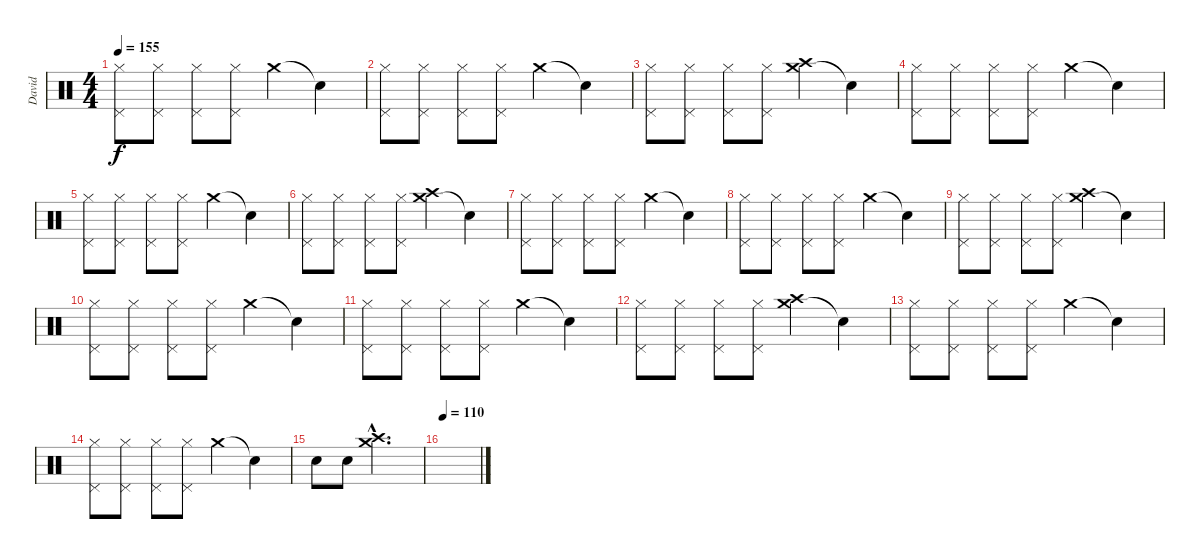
\track ("David" "David") {instrument percussion}
\staff {score}
\articulation defaults
\ts (4 4)
\tempo 155
\clef neutral
\ks c
("Hi-Hat (closed)" "Pedal Hi-Hat (hit)").8{dy f} ("Hi-Hat (closed)" "Pedal Hi-Hat (hit)").8 ("Hi-Hat (closed)" "Pedal Hi-Hat (hit)").8 ("Hi-Hat (closed)" "Pedal Hi-Hat (hit)").8 "Crash medium (hit)".4 "Snare (hit)"{t}.4 |
("Hi-Hat (closed)" "Pedal Hi-Hat (hit)").8 ("Hi-Hat (closed)" "Pedal Hi-Hat (hit)").8 ("Hi-Hat (closed)" "Pedal Hi-Hat (hit)").8 ("Hi-Hat (closed)" "Pedal Hi-Hat (hit)").8 "Crash medium (hit)".4 "Snare (hit)"{t}.4 |
("Hi-Hat (closed)" "Pedal Hi-Hat (hit)").8 ("Hi-Hat (closed)" "Pedal Hi-Hat (hit)").8 ("Hi-Hat (closed)" "Pedal Hi-Hat (hit)").8 ("Hi-Hat (closed)" "Pedal Hi-Hat (hit)").8 ("Crash medium (hit)" "Crash high (hit)").4 "Snare (hit)"{t}.4 |
("Hi-Hat (closed)" "Pedal Hi-Hat (hit)").8 ("Hi-Hat (closed)" "Pedal Hi-Hat (hit)").8 ("Hi-Hat (closed)" "Pedal Hi-Hat (hit)").8 ("Hi-Hat (closed)" "Pedal Hi-Hat (hit)").8 "Crash medium (hit)".4 "Snare (hit)"{t}.4 |
("Hi-Hat (closed)" "Pedal Hi-Hat (hit)").8 ("Hi-Hat (closed)" "Pedal Hi-Hat (hit)").8 ("Hi-Hat (closed)" "Pedal Hi-Hat (hit)").8 ("Hi-Hat (closed)" "Pedal Hi-Hat (hit)").8 "Crash medium (hit)".4 "Snare (hit)"{t}.4 |
("Hi-Hat (closed)" "Pedal Hi-Hat (hit)").8 ("Hi-Hat (closed)" "Pedal Hi-Hat (hit)").8 ("Hi-Hat (closed)" "Pedal Hi-Hat (hit)").8 ("Hi-Hat (closed)" "Pedal Hi-Hat (hit)").8 ("Crash medium (hit)" "Crash high (hit)").4 "Snare (hit)"{t}.4 |
("Hi-Hat (closed)" "Pedal Hi-Hat (hit)").8 ("Hi-Hat (closed)" "Pedal Hi-Hat (hit)").8 ("Hi-Hat (closed)" "Pedal Hi-Hat (hit)").8 ("Hi-Hat (closed)" "Pedal Hi-Hat (hit)").8 "Crash medium (hit)".4 "Snare (hit)"{t}.4 |
("Hi-Hat (closed)" "Pedal Hi-Hat (hit)").8 ("Hi-Hat (closed)" "Pedal Hi-Hat (hit)").8 ("Hi-Hat (closed)" "Pedal Hi-Hat (hit)").8 ("Hi-Hat (closed)" "Pedal Hi-Hat (hit)").8 "Crash medium (hit)".4 "Snare (hit)"{t}.4 |
("Hi-Hat (closed)" "Pedal Hi-Hat (hit)").8 ("Hi-Hat (closed)" "Pedal Hi-Hat (hit)").8 ("Hi-Hat (closed)" "Pedal Hi-Hat (hit)").8 ("Hi-Hat (closed)" "Pedal Hi-Hat (hit)").8 ("Crash medium (hit)" "Crash high (hit)").4 "Snare (hit)"{t}.4 |
("Hi-Hat (closed)" "Pedal Hi-Hat (hit)").8 ("Hi-Hat (closed)" "Pedal Hi-Hat (hit)").8 ("Hi-Hat (closed)" "Pedal Hi-Hat (hit)").8 ("Hi-Hat (closed)" "Pedal Hi-Hat (hit)").8 "Crash medium (hit)".4 "Snare (hit)"{t}.4 |
("Hi-Hat (closed)" "Pedal Hi-Hat (hit)").8 ("Hi-Hat (closed)" "Pedal Hi-Hat (hit)").8 ("Hi-Hat (closed)" "Pedal Hi-Hat (hit)").8 ("Hi-Hat (closed)" "Pedal Hi-Hat (hit)").8 "Crash medium (hit)".4 "Snare (hit)"{t}.4 |
("Hi-Hat (closed)" "Pedal Hi-Hat (hit)").8 ("Hi-Hat (closed)" "Pedal Hi-Hat (hit)").8 ("Hi-Hat (closed)" "Pedal Hi-Hat (hit)").8 ("Hi-Hat (closed)" "Pedal Hi-Hat (hit)").8 ("Crash medium (hit)" "Crash high (hit)").4 "Snare (hit)"{t}.4 |
("Hi-Hat (closed)" "Pedal Hi-Hat (hit)").8 ("Hi-Hat (closed)" "Pedal Hi-Hat (hit)").8 ("Hi-Hat (closed)" "Pedal Hi-Hat (hit)").8 ("Hi-Hat (closed)" "Pedal Hi-Hat (hit)").8 "Crash medium (hit)".4 "Snare (hit)"{t}.4 |
("Hi-Hat (closed)" "Pedal Hi-Hat (hit)").8 ("Hi-Hat (closed)" "Pedal Hi-Hat (hit)").8 ("Hi-Hat (closed)" "Pedal Hi-Hat (hit)").8 ("Hi-Hat (closed)" "Pedal Hi-Hat (hit)").8 "Crash medium (hit)".4 "Snare (hit)"{t}.4 |
"Electric Snare (hit)".8 "Electric Snare (hit)".8 ("Crash medium (hit)"{hac} "Crash high (hit)"{hac}).2{d} |
\tempo 110
